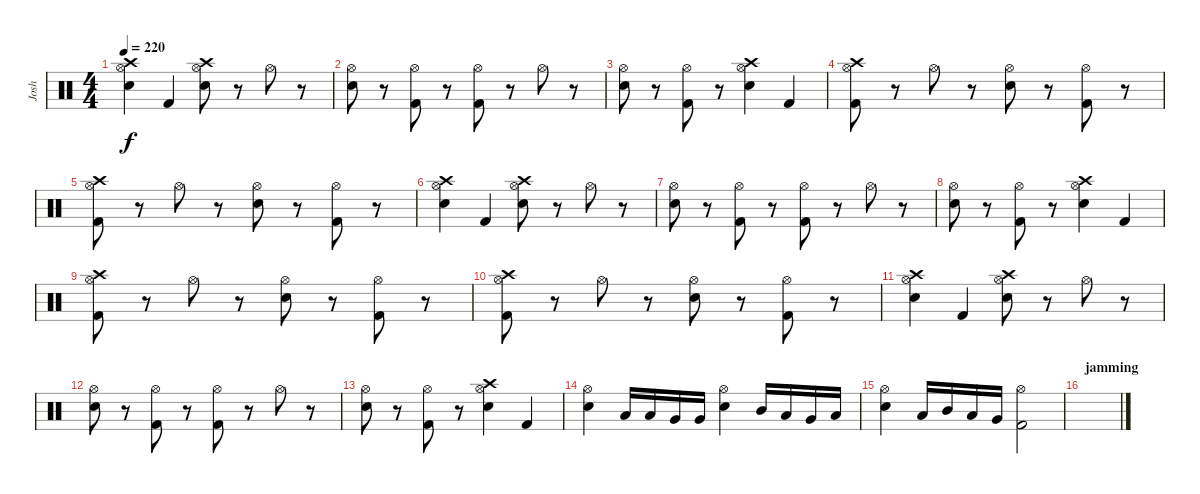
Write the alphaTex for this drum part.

\track ("Josh" "Josh") {instrument percussion}
\staff {score}
\articulation defaults
\ts (4 4)
\tempo 220
\clef neutral
\ks c
("Crash high (hit)" "Hi-Hat (open)" "Snare (hit) 2").4{dy f} "Kick (hit) 2".4 ("Crash high (hit)" "Hi-Hat (open)" "Snare (hit) 2").8 r.8 "Hi-Hat (open)".8 r.8 |
("Hi-Hat (open)" "Snare (hit) 2").8 r.8 ("Hi-Hat (open)" "Kick (hit) 2").8 r.8 ("Hi-Hat (open)" "Kick (hit) 2").8 r.8 "Hi-Hat (open)".8 r.8 |
("Hi-Hat (open)" "Snare (hit) 2").8 r.8 ("Hi-Hat (open)" "Kick (hit) 2").8 r.8 ("Crash high (hit)" "Hi-Hat (open)" "Snare (hit) 2").4 "Kick (hit) 2".4 |
("Crash high (hit)" "Hi-Hat (open)" "Kick (hit) 2").8 r.8 "Hi-Hat (open)".8 r.8 ("Hi-Hat (open)" "Snare (hit) 2").8 r.8 ("Hi-Hat (open)" "Kick (hit) 2").8 r.8 |
("Crash high (hit)" "Hi-Hat (open)" "Kick (hit) 2").8 r.8 "Hi-Hat (open)".8 r.8 ("Hi-Hat (open)" "Snare (hit) 2").8 r.8 ("Hi-Hat (open)" "Kick (hit) 2").8 r.8 |
("Crash high (hit)" "Hi-Hat (open)" "Snare (hit) 2").4 "Kick (hit) 2".4 ("Crash high (hit)" "Hi-Hat (open)" "Snare (hit) 2").8 r.8 "Hi-Hat (open)".8 r.8 |
("Hi-Hat (open)" "Snare (hit) 2").8 r.8 ("Hi-Hat (open)" "Kick (hit) 2").8 r.8 ("Hi-Hat (open)" "Kick (hit) 2").8 r.8 "Hi-Hat (open)".8 r.8 |
("Hi-Hat (open)" "Snare (hit) 2").8 r.8 ("Hi-Hat (open)" "Kick (hit) 2").8 r.8 ("Crash high (hit)" "Hi-Hat (open)" "Snare (hit) 2").4 "Kick (hit) 2".4 |
("Crash high (hit)" "Hi-Hat (open)" "Kick (hit) 2").8 r.8 "Hi-Hat (open)".8 r.8 ("Hi-Hat (open)" "Snare (hit) 2").8 r.8 ("Hi-Hat (open)" "Kick (hit) 2").8 r.8 |
("Crash high (hit)" "Hi-Hat (open)" "Kick (hit) 2").8 r.8 "Hi-Hat (open)".8 r.8 ("Hi-Hat (open)" "Snare (hit) 2").8 r.8 ("Hi-Hat (open)" "Kick (hit) 2").8 r.8 |
("Crash high (hit)" "Hi-Hat (open)" "Snare (hit) 2").4 "Kick (hit) 2".4 ("Crash high (hit)" "Hi-Hat (open)" "Snare (hit) 2").8 r.8 "Hi-Hat (open)".8 r.8 |
("Hi-Hat (open)" "Snare (hit) 2").8 r.8 ("Hi-Hat (open)" "Kick (hit) 2").8 r.8 ("Hi-Hat (open)" "Kick (hit) 2").8 r.8 "Hi-Hat (open)".8 r.8 |
("Hi-Hat (open)" "Snare (hit) 2").8 r.8 ("Hi-Hat (open)" "Kick (hit) 2").8 r.8 ("Crash high (hit)" "Hi-Hat (open)" "Snare (hit) 2").4 "Kick (hit) 2".4 |
("Hi-Hat (open)" "Snare (hit) 2").4 "Low Tom (hit)".16 "Low Tom (hit)".16 "Very Low Tom (hit)".16 "Very Low Tom (hit)".16 ("Hi-Hat (open)" "Snare (hit) 2").4 "Mid Tom (hit)".16 "Low Tom (hit)".16 "Very Low Tom (hit)".16 "Low Tom (hit)".16 |
("Hi-Hat (open)" "Snare (hit) 2").4 "Low Tom (hit)".16 "Mid Tom (hit)".16 "Low Tom (hit)".16 "Very Low Tom (hit)".16 ("Hi-Hat (open)" "Kick (hit) 2").2 |
\section ("" "jamming")
